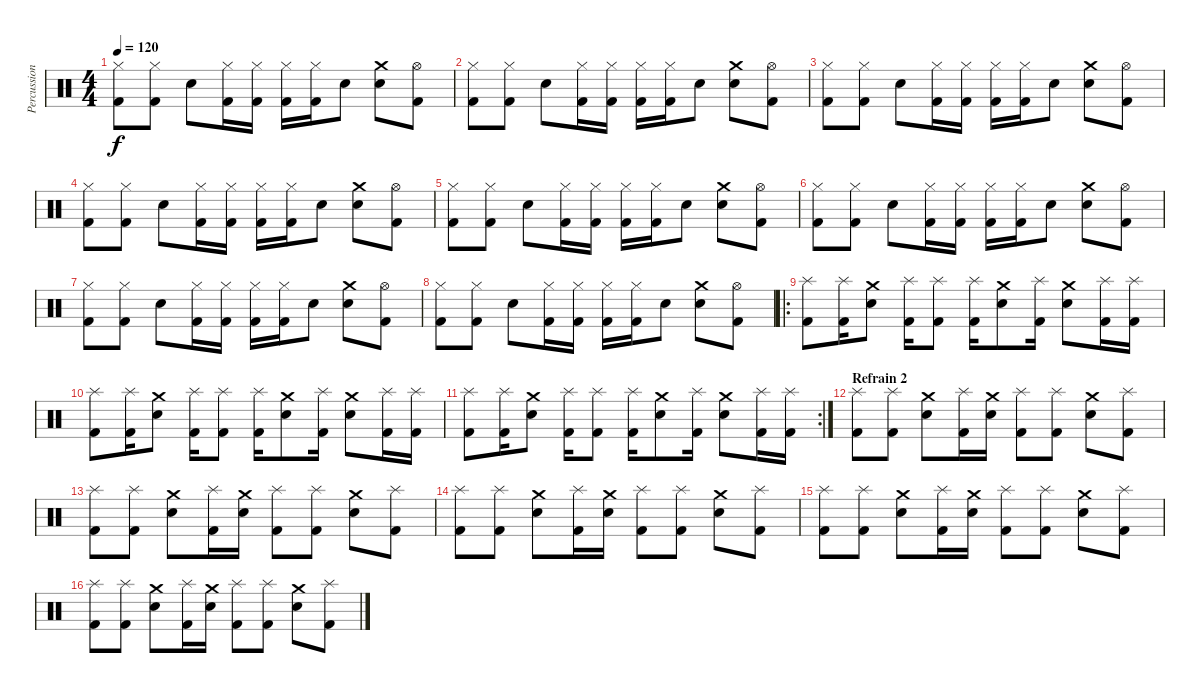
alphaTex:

\track ("Percussions" "Percussion") {instrument percussion}
\staff {score}
\articulation defaults
\ts (4 4)
\tempo 120
\clef neutral
\ks c
("Hi-Hat (closed)" "Kick (hit) 2").8{dy f} ("Hi-Hat (closed)" "Kick (hit) 2").8 "Snare (hit) 2".8 ("Hi-Hat (closed)" "Kick (hit) 2").16 ("Hi-Hat (closed)" "Kick (hit) 2").16 ("Hi-Hat (closed)" "Kick (hit) 2").16 ("Hi-Hat (closed)" "Kick (hit) 2").16 "Snare (hit) 2".8 ("Crash medium (hit)" "Snare (hit) 2").8 ("Hi-Hat (open)" "Kick (hit) 2").8 |
("Hi-Hat (closed)" "Kick (hit) 2").8 ("Hi-Hat (closed)" "Kick (hit) 2").8 "Snare (hit) 2".8 ("Hi-Hat (closed)" "Kick (hit) 2").16 ("Hi-Hat (closed)" "Kick (hit) 2").16 ("Hi-Hat (closed)" "Kick (hit) 2").16 ("Hi-Hat (closed)" "Kick (hit) 2").16 "Snare (hit) 2".8 ("Crash medium (hit)" "Snare (hit) 2").8 ("Hi-Hat (open)" "Kick (hit) 2").8 |
("Hi-Hat (closed)" "Kick (hit) 2").8 ("Hi-Hat (closed)" "Kick (hit) 2").8 "Snare (hit) 2".8 ("Hi-Hat (closed)" "Kick (hit) 2").16 ("Hi-Hat (closed)" "Kick (hit) 2").16 ("Hi-Hat (closed)" "Kick (hit) 2").16 ("Hi-Hat (closed)" "Kick (hit) 2").16 "Snare (hit) 2".8 ("Crash medium (hit)" "Snare (hit) 2").8 ("Hi-Hat (open)" "Kick (hit) 2").8 |
("Hi-Hat (closed)" "Kick (hit) 2").8 ("Hi-Hat (closed)" "Kick (hit) 2").8 "Snare (hit) 2".8 ("Hi-Hat (closed)" "Kick (hit) 2").16 ("Hi-Hat (closed)" "Kick (hit) 2").16 ("Hi-Hat (closed)" "Kick (hit) 2").16 ("Hi-Hat (closed)" "Kick (hit) 2").16 "Snare (hit) 2".8 ("Crash medium (hit)" "Snare (hit) 2").8 ("Hi-Hat (open)" "Kick (hit) 2").8 |
("Hi-Hat (closed)" "Kick (hit) 2").8 ("Hi-Hat (closed)" "Kick (hit) 2").8 "Snare (hit) 2".8 ("Hi-Hat (closed)" "Kick (hit) 2").16 ("Hi-Hat (closed)" "Kick (hit) 2").16 ("Hi-Hat (closed)" "Kick (hit) 2").16 ("Hi-Hat (closed)" "Kick (hit) 2").16 "Snare (hit) 2".8 ("Crash medium (hit)" "Snare (hit) 2").8 ("Hi-Hat (open)" "Kick (hit) 2").8 |
("Hi-Hat (closed)" "Kick (hit) 2").8 ("Hi-Hat (closed)" "Kick (hit) 2").8 "Snare (hit) 2".8 ("Hi-Hat (closed)" "Kick (hit) 2").16 ("Hi-Hat (closed)" "Kick (hit) 2").16 ("Hi-Hat (closed)" "Kick (hit) 2").16 ("Hi-Hat (closed)" "Kick (hit) 2").16 "Snare (hit) 2".8 ("Crash medium (hit)" "Snare (hit) 2").8 ("Hi-Hat (open)" "Kick (hit) 2").8 |
("Hi-Hat (closed)" "Kick (hit) 2").8 ("Hi-Hat (closed)" "Kick (hit) 2").8 "Snare (hit) 2".8 ("Hi-Hat (closed)" "Kick (hit) 2").16 ("Hi-Hat (closed)" "Kick (hit) 2").16 ("Hi-Hat (closed)" "Kick (hit) 2").16 ("Hi-Hat (closed)" "Kick (hit) 2").16 "Snare (hit) 2".8 ("Crash medium (hit)" "Snare (hit) 2").8 ("Hi-Hat (open)" "Kick (hit) 2").8 |
("Hi-Hat (closed)" "Kick (hit) 2").8 ("Hi-Hat (closed)" "Kick (hit) 2").8 "Snare (hit) 2".8 ("Hi-Hat (closed)" "Kick (hit) 2").16 ("Hi-Hat (closed)" "Kick (hit) 2").16 ("Hi-Hat (closed)" "Kick (hit) 2").16 ("Hi-Hat (closed)" "Kick (hit) 2").16 "Snare (hit) 2".8 ("Crash medium (hit)" "Snare (hit) 2").8 ("Hi-Hat (open)" "Kick (hit) 2").8 |
\ro
("Splash (hit)" "Kick (hit) 2").8 ("Splash (hit)" "Kick (hit) 2").16 ("Crash medium (hit)" "Snare (hit) 2").8 ("Splash (hit)" "Kick (hit) 2").16 ("Splash (hit)" "Kick (hit) 2").8 ("Splash (hit)" "Kick (hit) 2").16 ("Crash medium (hit)" "Snare (hit) 2").8 ("Splash (hit)" "Kick (hit) 2").16 ("Crash medium (hit)" "Snare (hit) 2").8 ("Splash (hit)" "Kick (hit) 2").16 ("Splash (hit)" "Kick (hit) 2").16 |
("Splash (hit)" "Kick (hit) 2").8 ("Splash (hit)" "Kick (hit) 2").16 ("Crash medium (hit)" "Snare (hit) 2").8 ("Splash (hit)" "Kick (hit) 2").16 ("Splash (hit)" "Kick (hit) 2").8 ("Splash (hit)" "Kick (hit) 2").16 ("Crash medium (hit)" "Snare (hit) 2").8 ("Splash (hit)" "Kick (hit) 2").16 ("Crash medium (hit)" "Snare (hit) 2").8 ("Splash (hit)" "Kick (hit) 2").16 ("Splash (hit)" "Kick (hit) 2").16 |
\rc 2
("Splash (hit)" "Kick (hit) 2").8 ("Splash (hit)" "Kick (hit) 2").16 ("Crash medium (hit)" "Snare (hit) 2").8 ("Splash (hit)" "Kick (hit) 2").16 ("Splash (hit)" "Kick (hit) 2").8 ("Splash (hit)" "Kick (hit) 2").16 ("Crash medium (hit)" "Snare (hit) 2").8 ("Splash (hit)" "Kick (hit) 2").16 ("Crash medium (hit)" "Snare (hit) 2").8 ("Splash (hit)" "Kick (hit) 2").16 ("Splash (hit)" "Kick (hit) 2").16 |
\section ("" "Refrain 2")
("Splash (hit)" "Kick (hit) 2").8 ("Splash (hit)" "Kick (hit) 2").8 ("Crash medium (hit)" "Snare (hit) 2").8 ("Splash (hit)" "Kick (hit) 2").16 ("Crash medium (hit)" "Snare (hit) 2").16 ("Splash (hit)" "Kick (hit) 2").8 ("Splash (hit)" "Kick (hit) 2").8 ("Crash medium (hit)" "Snare (hit) 2").8 ("Splash (hit)" "Kick (hit) 2").8 |
("Splash (hit)" "Kick (hit) 2").8 ("Splash (hit)" "Kick (hit) 2").8 ("Crash medium (hit)" "Snare (hit) 2").8 ("Splash (hit)" "Kick (hit) 2").16 ("Crash medium (hit)" "Snare (hit) 2").16 ("Splash (hit)" "Kick (hit) 2").8 ("Splash (hit)" "Kick (hit) 2").8 ("Crash medium (hit)" "Snare (hit) 2").8 ("Splash (hit)" "Kick (hit) 2").8 |
("Splash (hit)" "Kick (hit) 2").8 ("Splash (hit)" "Kick (hit) 2").8 ("Crash medium (hit)" "Snare (hit) 2").8 ("Splash (hit)" "Kick (hit) 2").16 ("Crash medium (hit)" "Snare (hit) 2").16 ("Splash (hit)" "Kick (hit) 2").8 ("Splash (hit)" "Kick (hit) 2").8 ("Crash medium (hit)" "Snare (hit) 2").8 ("Splash (hit)" "Kick (hit) 2").8 |
("Splash (hit)" "Kick (hit) 2").8 ("Splash (hit)" "Kick (hit) 2").8 ("Crash medium (hit)" "Snare (hit) 2").8 ("Splash (hit)" "Kick (hit) 2").16 ("Crash medium (hit)" "Snare (hit) 2").16 ("Splash (hit)" "Kick (hit) 2").8 ("Splash (hit)" "Kick (hit) 2").8 ("Crash medium (hit)" "Snare (hit) 2").8 ("Splash (hit)" "Kick (hit) 2").8 |
("Splash (hit)" "Kick (hit) 2").8 ("Splash (hit)" "Kick (hit) 2").8 ("Crash medium (hit)" "Snare (hit) 2").8 ("Splash (hit)" "Kick (hit) 2").16 ("Crash medium (hit)" "Snare (hit) 2").16 ("Splash (hit)" "Kick (hit) 2").8 ("Splash (hit)" "Kick (hit) 2").8 ("Crash medium (hit)" "Snare (hit) 2").8 ("Splash (hit)" "Kick (hit) 2").8
